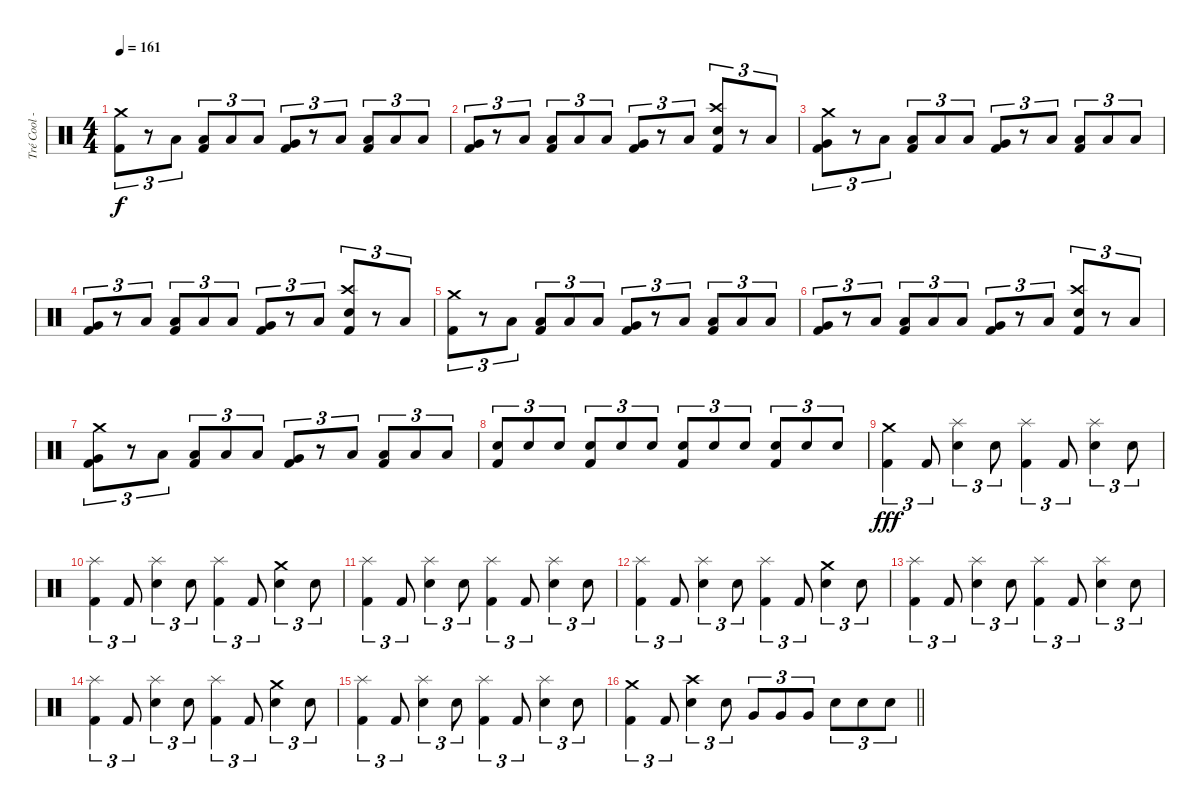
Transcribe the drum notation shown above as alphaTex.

\track ("Tré Cool - Drums" "Tré Cool -") {instrument percussion}
\staff {score}
\articulation defaults
\ts (4 4)
\tempo 161
\clef neutral
\ks c
("Crash medium (hit)" "Kick (hit) 2").8{tu (3 2) dy f} r.8{tu (3 2)} "Low Floor Tom (hit)".8{tu (3 2)} ("Low Floor Tom (hit)" "Kick (hit) 2").8{tu (3 2)} "Low Floor Tom (hit)".8{tu (3 2)} "Low Floor Tom (hit)".8{tu (3 2)} ("Very Low Tom (hit)" "Kick (hit) 2").8{tu (3 2)} r.8{tu (3 2)} "Low Floor Tom (hit)".8{tu (3 2)} ("Low Floor Tom (hit)" "Kick (hit) 2").8{tu (3 2)} "Low Floor Tom (hit)".8{tu (3 2)} "Low Floor Tom (hit)".8{tu (3 2)} |
("Very Low Tom (hit)" "Kick (hit) 2").8{tu (3 2)} r.8{tu (3 2)} "Low Floor Tom (hit)".8{tu (3 2)} ("Low Floor Tom (hit)" "Kick (hit) 2").8{tu (3 2)} "Low Floor Tom (hit)".8{tu (3 2)} "Low Floor Tom (hit)".8{tu (3 2)} ("Very Low Tom (hit)" "Kick (hit) 2").8{tu (3 2)} r.8{tu (3 2)} "Low Floor Tom (hit)".8{tu (3 2)} ("Crash high (hit)" "Electric Snare (hit)" "Kick (hit) 2").8{tu (3 2)} r.8{tu (3 2)} "Low Floor Tom (hit)".8{tu (3 2)} |
("Crash medium (hit)" "Very Low Tom (hit)" "Kick (hit) 2").8{tu (3 2)} r.8{tu (3 2)} "Low Floor Tom (hit)".8{tu (3 2)} ("Low Floor Tom (hit)" "Kick (hit) 2").8{tu (3 2)} "Low Floor Tom (hit)".8{tu (3 2)} "Low Floor Tom (hit)".8{tu (3 2)} ("Very Low Tom (hit)" "Kick (hit) 2").8{tu (3 2)} r.8{tu (3 2)} "Low Floor Tom (hit)".8{tu (3 2)} ("Low Floor Tom (hit)" "Kick (hit) 2").8{tu (3 2)} "Low Floor Tom (hit)".8{tu (3 2)} "Low Floor Tom (hit)".8{tu (3 2)} |
("Very Low Tom (hit)" "Kick (hit) 2").8{tu (3 2)} r.8{tu (3 2)} "Low Floor Tom (hit)".8{tu (3 2)} ("Low Floor Tom (hit)" "Kick (hit) 2").8{tu (3 2)} "Low Floor Tom (hit)".8{tu (3 2)} "Low Floor Tom (hit)".8{tu (3 2)} ("Very Low Tom (hit)" "Kick (hit) 2").8{tu (3 2)} r.8{tu (3 2)} "Low Floor Tom (hit)".8{tu (3 2)} ("Crash high (hit)" "Electric Snare (hit)" "Kick (hit) 2").8{tu (3 2)} r.8{tu (3 2)} "Low Floor Tom (hit)".8{tu (3 2)} |
("Crash medium (hit)" "Kick (hit) 2").8{tu (3 2)} r.8{tu (3 2)} "Low Floor Tom (hit)".8{tu (3 2)} ("Low Floor Tom (hit)" "Kick (hit) 2").8{tu (3 2)} "Low Floor Tom (hit)".8{tu (3 2)} "Low Floor Tom (hit)".8{tu (3 2)} ("Very Low Tom (hit)" "Kick (hit) 2").8{tu (3 2)} r.8{tu (3 2)} "Low Floor Tom (hit)".8{tu (3 2)} ("Low Floor Tom (hit)" "Kick (hit) 2").8{tu (3 2)} "Low Floor Tom (hit)".8{tu (3 2)} "Low Floor Tom (hit)".8{tu (3 2)} |
("Very Low Tom (hit)" "Kick (hit) 2").8{tu (3 2)} r.8{tu (3 2)} "Low Floor Tom (hit)".8{tu (3 2)} ("Low Floor Tom (hit)" "Kick (hit) 2").8{tu (3 2)} "Low Floor Tom (hit)".8{tu (3 2)} "Low Floor Tom (hit)".8{tu (3 2)} ("Very Low Tom (hit)" "Kick (hit) 2").8{tu (3 2)} r.8{tu (3 2)} "Low Floor Tom (hit)".8{tu (3 2)} ("Crash high (hit)" "Electric Snare (hit)" "Kick (hit) 2").8{tu (3 2)} r.8{tu (3 2)} "Low Floor Tom (hit)".8{tu (3 2)} |
("Crash medium (hit)" "Very Low Tom (hit)" "Kick (hit) 2").8{tu (3 2)} r.8{tu (3 2)} "Low Floor Tom (hit)".8{tu (3 2)} ("Low Floor Tom (hit)" "Kick (hit) 2").8{tu (3 2)} "Low Floor Tom (hit)".8{tu (3 2)} "Low Floor Tom (hit)".8{tu (3 2)} ("Very Low Tom (hit)" "Kick (hit) 2").8{tu (3 2)} r.8{tu (3 2)} "Low Floor Tom (hit)".8{tu (3 2)} ("Low Floor Tom (hit)" "Kick (hit) 2").8{tu (3 2)} "Low Floor Tom (hit)".8{tu (3 2)} "Low Floor Tom (hit)".8{tu (3 2)} |
("Electric Snare (hit)" "Kick (hit) 2").8{tu (3 2)} "Electric Snare (hit)".8{tu (3 2)} "Electric Snare (hit)".8{tu (3 2)} ("Electric Snare (hit)" "Kick (hit) 2").8{tu (3 2)} "Electric Snare (hit)".8{tu (3 2)} "Electric Snare (hit)".8{tu (3 2)} ("Electric Snare (hit)" "Kick (hit) 2").8{tu (3 2)} "Electric Snare (hit)".8{tu (3 2)} "Electric Snare (hit)".8{tu (3 2)} ("Electric Snare (hit)" "Kick (hit) 2").8{tu (3 2)} "Electric Snare (hit)".8{tu (3 2)} "Electric Snare (hit)".8{tu (3 2)} |
("Crash medium (hit)" "Kick (hit) 2").4{tu (3 2) dy fff} "Kick (hit) 2".8{tu (3 2)} ("Splash (hit)" "Electric Snare (hit)").4{tu (3 2)} "Electric Snare (hit)".8{tu (3 2)} ("Splash (hit)" "Kick (hit) 2").4{tu (3 2)} "Kick (hit) 2".8{tu (3 2)} ("Splash (hit)" "Electric Snare (hit)").4{tu (3 2)} "Electric Snare (hit)".8{tu (3 2)} |
("Splash (hit)" "Kick (hit) 2").4{tu (3 2)} "Kick (hit) 2".8{tu (3 2)} ("Splash (hit)" "Electric Snare (hit)").4{tu (3 2)} "Electric Snare (hit)".8{tu (3 2)} ("Splash (hit)" "Kick (hit) 2").4{tu (3 2)} "Kick (hit) 2".8{tu (3 2)} ("Crash medium (hit)" "Electric Snare (hit)").4{tu (3 2)} "Electric Snare (hit)".8{tu (3 2)} |
("Splash (hit)" "Kick (hit) 2").4{tu (3 2)} "Kick (hit) 2".8{tu (3 2)} ("Splash (hit)" "Electric Snare (hit)").4{tu (3 2)} "Electric Snare (hit)".8{tu (3 2)} ("Splash (hit)" "Kick (hit) 2").4{tu (3 2)} "Kick (hit) 2".8{tu (3 2)} ("Splash (hit)" "Electric Snare (hit)").4{tu (3 2)} "Electric Snare (hit)".8{tu (3 2)} |
("Splash (hit)" "Kick (hit) 2").4{tu (3 2)} "Kick (hit) 2".8{tu (3 2)} ("Splash (hit)" "Electric Snare (hit)").4{tu (3 2)} "Electric Snare (hit)".8{tu (3 2)} ("Splash (hit)" "Kick (hit) 2").4{tu (3 2)} "Kick (hit) 2".8{tu (3 2)} ("Crash medium (hit)" "Electric Snare (hit)").4{tu (3 2)} "Electric Snare (hit)".8{tu (3 2)} |
("Splash (hit)" "Kick (hit) 2").4{tu (3 2)} "Kick (hit) 2".8{tu (3 2)} ("Splash (hit)" "Electric Snare (hit)").4{tu (3 2)} "Electric Snare (hit)".8{tu (3 2)} ("Splash (hit)" "Kick (hit) 2").4{tu (3 2)} "Kick (hit) 2".8{tu (3 2)} ("Splash (hit)" "Electric Snare (hit)").4{tu (3 2)} "Electric Snare (hit)".8{tu (3 2)} |
("Splash (hit)" "Kick (hit) 2").4{tu (3 2)} "Kick (hit) 2".8{tu (3 2)} ("Splash (hit)" "Electric Snare (hit)").4{tu (3 2)} "Electric Snare (hit)".8{tu (3 2)} ("Splash (hit)" "Kick (hit) 2").4{tu (3 2)} "Kick (hit) 2".8{tu (3 2)} ("Crash medium (hit)" "Electric Snare (hit)").4{tu (3 2)} "Electric Snare (hit)".8{tu (3 2)} |
("Splash (hit)" "Kick (hit) 2").4{tu (3 2)} "Kick (hit) 2".8{tu (3 2)} ("Splash (hit)" "Electric Snare (hit)").4{tu (3 2)} "Electric Snare (hit)".8{tu (3 2)} ("Splash (hit)" "Kick (hit) 2").4{tu (3 2)} "Kick (hit) 2".8{tu (3 2)} ("Splash (hit)" "Electric Snare (hit)").4{tu (3 2)} "Electric Snare (hit)".8{tu (3 2)} |
\barLineRight lightlight
("Crash medium (hit)" "Kick (hit) 2").4{tu (3 2)} "Kick (hit) 2".8{tu (3 2)} ("Crash high (hit)" "Electric Snare (hit)").4{tu (3 2)} "Electric Snare (hit)".8{tu (3 2)} "Very Low Tom (hit)".8{tu (3 2)} "Very Low Tom (hit)".8{tu (3 2)} "Very Low Tom (hit)".8{tu (3 2)} "Electric Snare (hit)".8{tu (3 2)} "Electric Snare (hit)".8{tu (3 2)} "Electric Snare (hit)".8{tu (3 2)}
